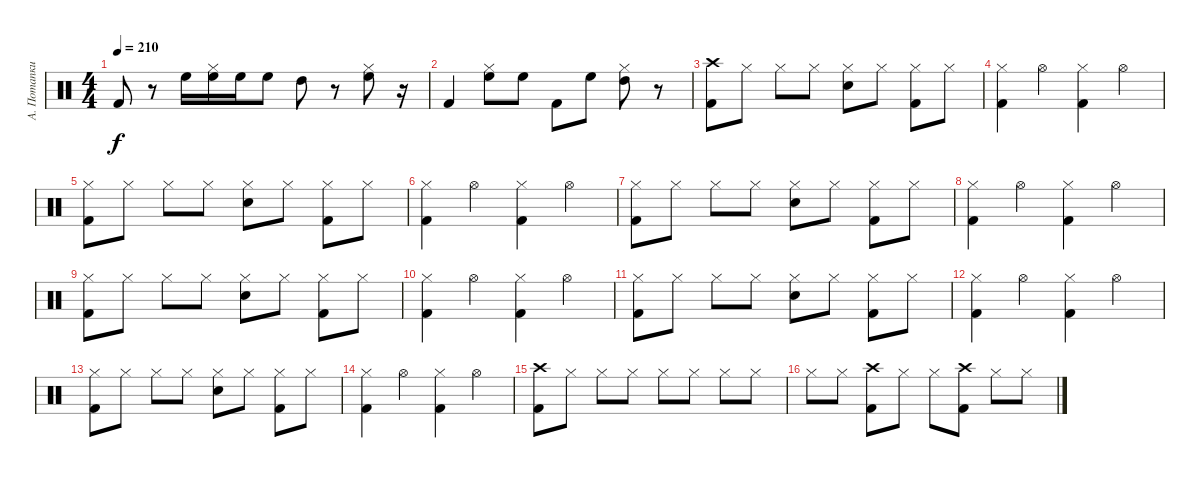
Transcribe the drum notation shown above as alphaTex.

\track ("А. Потапкин" "А. Потапки") {instrument percussion}
\staff {score}
\articulation defaults
\ts (4 4)
\tempo 210
\clef neutral
\ks c "Kick (hit) 2".8{dy f}
r.8 "High Floor Tom (hit)".16 ("Hi-Hat (closed)" "High Floor Tom (hit)").16 "High Floor Tom (hit)".16 "High Floor Tom (hit)".8 "High Tom (hit)".8 r.8 ("Hi-Hat (closed)" "High Floor Tom (hit)").8 r.16 |
"Kick (hit) 2".4 ("Hi-Hat (closed)" "High Floor Tom (hit)").8 "High Floor Tom (hit)".8 "Kick (hit) 2".8 "High Floor Tom (hit)".8 ("Hi-Hat (closed)" "High Tom (hit)").8 r.8 |
("Crash high (hit)" "Kick (hit) 2").8 "Hi-Hat (closed)".8 "Hi-Hat (closed)".8 "Hi-Hat (closed)".8 ("Hi-Hat (closed)" "Snare (hit) 2").8 "Hi-Hat (closed)".8 ("Hi-Hat (closed)" "Kick (hit) 2").8 "Hi-Hat (closed)".8 |
("Hi-Hat (closed)" "Kick (hit) 2").4 "Hi-Hat (open)".4 ("Hi-Hat (closed)" "Kick (hit) 2").4 "Hi-Hat (open)".4 |
("Hi-Hat (closed)" "Kick (hit) 2").8 "Hi-Hat (closed)".8 "Hi-Hat (closed)".8 "Hi-Hat (closed)".8 ("Hi-Hat (closed)" "Snare (hit) 2").8 "Hi-Hat (closed)".8 ("Hi-Hat (closed)" "Kick (hit) 2").8 "Hi-Hat (closed)".8 |
("Hi-Hat (closed)" "Kick (hit) 2").4 "Hi-Hat (open)".4 ("Hi-Hat (closed)" "Kick (hit) 2").4 "Hi-Hat (open)".4 |
("Hi-Hat (closed)" "Kick (hit) 2").8 "Hi-Hat (closed)".8 "Hi-Hat (closed)".8 "Hi-Hat (closed)".8 ("Hi-Hat (closed)" "Snare (hit) 2").8 "Hi-Hat (closed)".8 ("Hi-Hat (closed)" "Kick (hit) 2").8 "Hi-Hat (closed)".8 |
("Hi-Hat (closed)" "Kick (hit) 2").4 "Hi-Hat (open)".4 ("Hi-Hat (closed)" "Kick (hit) 2").4 "Hi-Hat (open)".4 |
("Hi-Hat (closed)" "Kick (hit) 2").8 "Hi-Hat (closed)".8 "Hi-Hat (closed)".8 "Hi-Hat (closed)".8 ("Hi-Hat (closed)" "Snare (hit) 2").8 "Hi-Hat (closed)".8 ("Hi-Hat (closed)" "Kick (hit) 2").8 "Hi-Hat (closed)".8 |
("Hi-Hat (closed)" "Kick (hit) 2").4 "Hi-Hat (open)".4 ("Hi-Hat (closed)" "Kick (hit) 2").4 "Hi-Hat (open)".4 |
("Hi-Hat (closed)" "Kick (hit) 2").8 "Hi-Hat (closed)".8 "Hi-Hat (closed)".8 "Hi-Hat (closed)".8 ("Hi-Hat (closed)" "Snare (hit) 2").8 "Hi-Hat (closed)".8 ("Hi-Hat (closed)" "Kick (hit) 2").8 "Hi-Hat (closed)".8 |
("Hi-Hat (closed)" "Kick (hit) 2").4 "Hi-Hat (open)".4 ("Hi-Hat (closed)" "Kick (hit) 2").4 "Hi-Hat (open)".4 |
("Hi-Hat (closed)" "Kick (hit) 2").8 "Hi-Hat (closed)".8 "Hi-Hat (closed)".8 "Hi-Hat (closed)".8 ("Hi-Hat (closed)" "Snare (hit) 2").8 "Hi-Hat (closed)".8 ("Hi-Hat (closed)" "Kick (hit) 2").8 "Hi-Hat (closed)".8 |
("Hi-Hat (closed)" "Kick (hit) 2").4 "Hi-Hat (open)".4 ("Hi-Hat (closed)" "Kick (hit) 2").4 "Hi-Hat (open)".4 |
("Crash high (hit)" "Kick (hit) 2").8 "Hi-Hat (closed)".8 "Hi-Hat (closed)".8 "Hi-Hat (closed)".8 "Hi-Hat (closed)".8 "Hi-Hat (closed)".8 "Hi-Hat (closed)".8 "Hi-Hat (closed)".8 |
"Hi-Hat (closed)".8 "Hi-Hat (closed)".8 ("Crash high (hit)" "Kick (hit) 2").8 "Hi-Hat (closed)".8 "Hi-Hat (closed)".8 ("Crash high (hit)" "Kick (hit) 2").8 "Hi-Hat (closed)".8 "Hi-Hat (closed)".8
